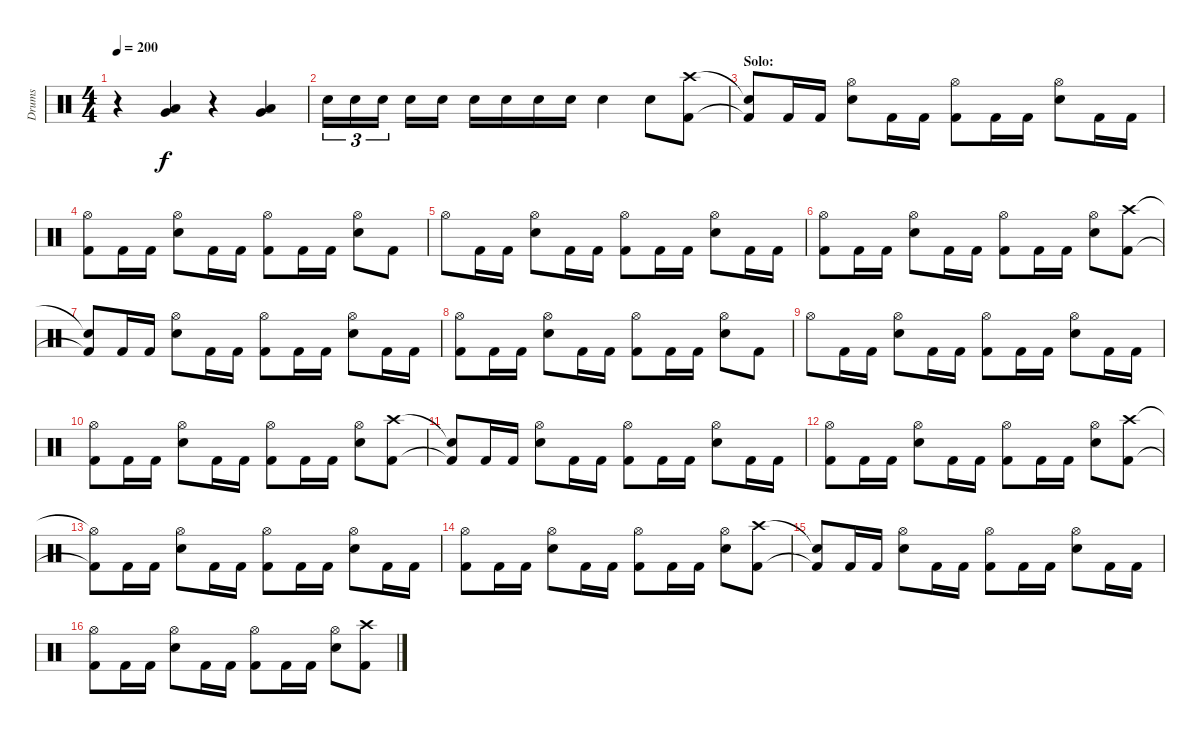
\track ("Drums" "Drums") {instrument percussion}
\staff {score}
\articulation defaults
\ts (4 4)
\tempo 200
\clef neutral
\ks c
r.4{dy f} ("Low Tom (hit)" "Very Low Tom (hit)").4 r.4 ("Low Tom (hit)" "Very Low Tom (hit)").4 |
"Electric Snare (hit)".16{tu (3 2)} "Electric Snare (hit)".16{tu (3 2)} "Electric Snare (hit)".16{tu (3 2)} "Electric Snare (hit)".16 "Electric Snare (hit)".16 "Electric Snare (hit)".16 "Electric Snare (hit)".16 "Electric Snare (hit)".16 "Electric Snare (hit)".16 "Electric Snare (hit)".4 "Electric Snare (hit)".8 ("Crash high (hit)" "Kick (hit) 2").8 |
\section ("" "Solo:")
("Snare (hit)"{t} "Kick (hit) 2"{t}).8 "Kick (hit) 2".16 "Kick (hit) 2".16 ("Hi-Hat (open)" "Electric Snare (hit)").8 "Kick (hit) 2".16 "Kick (hit) 2".16 ("Hi-Hat (open)" "Kick (hit) 2").8 "Kick (hit) 2".16 "Kick (hit) 2".16 ("Hi-Hat (open)" "Electric Snare (hit)").8 "Kick (hit) 2".16 "Kick (hit) 2".16 |
("Hi-Hat (open)" "Kick (hit) 2").8 "Kick (hit) 2".16 "Kick (hit) 2".16 ("Hi-Hat (open)" "Electric Snare (hit)").8 "Kick (hit) 2".16 "Kick (hit) 2".16 ("Hi-Hat (open)" "Kick (hit) 2").8 "Kick (hit) 2".16 "Kick (hit) 2".16 ("Hi-Hat (open)" "Electric Snare (hit)").8 "Kick (hit) 2".8 |
"Hi-Hat (open)".8 "Kick (hit) 2".16 "Kick (hit) 2".16 ("Hi-Hat (open)" "Electric Snare (hit)").8 "Kick (hit) 2".16 "Kick (hit) 2".16 ("Hi-Hat (open)" "Kick (hit) 2").8 "Kick (hit) 2".16 "Kick (hit) 2".16 ("Hi-Hat (open)" "Electric Snare (hit)").8 "Kick (hit) 2".16 "Kick (hit) 2".16 |
("Hi-Hat (open)" "Kick (hit) 2").8 "Kick (hit) 2".16 "Kick (hit) 2".16 ("Hi-Hat (open)" "Electric Snare (hit)").8 "Kick (hit) 2".16 "Kick (hit) 2".16 ("Hi-Hat (open)" "Kick (hit) 2").8 "Kick (hit) 2".16 "Kick (hit) 2".16 ("Hi-Hat (open)" "Electric Snare (hit)").8 ("Crash high (hit)" "Kick (hit) 2").8 |
("Snare (hit)"{t} "Kick (hit) 2"{t}).8 "Kick (hit) 2".16 "Kick (hit) 2".16 ("Hi-Hat (open)" "Electric Snare (hit)").8 "Kick (hit) 2".16 "Kick (hit) 2".16 ("Hi-Hat (open)" "Kick (hit) 2").8 "Kick (hit) 2".16 "Kick (hit) 2".16 ("Hi-Hat (open)" "Electric Snare (hit)").8 "Kick (hit) 2".16 "Kick (hit) 2".16 |
("Hi-Hat (open)" "Kick (hit) 2").8 "Kick (hit) 2".16 "Kick (hit) 2".16 ("Hi-Hat (open)" "Electric Snare (hit)").8 "Kick (hit) 2".16 "Kick (hit) 2".16 ("Hi-Hat (open)" "Kick (hit) 2").8 "Kick (hit) 2".16 "Kick (hit) 2".16 ("Hi-Hat (open)" "Electric Snare (hit)").8 "Kick (hit) 2".8 |
"Hi-Hat (open)".8 "Kick (hit) 2".16 "Kick (hit) 2".16 ("Hi-Hat (open)" "Electric Snare (hit)").8 "Kick (hit) 2".16 "Kick (hit) 2".16 ("Hi-Hat (open)" "Kick (hit) 2").8 "Kick (hit) 2".16 "Kick (hit) 2".16 ("Hi-Hat (open)" "Electric Snare (hit)").8 "Kick (hit) 2".16 "Kick (hit) 2".16 |
("Hi-Hat (open)" "Kick (hit) 2").8 "Kick (hit) 2".16 "Kick (hit) 2".16 ("Hi-Hat (open)" "Electric Snare (hit)").8 "Kick (hit) 2".16 "Kick (hit) 2".16 ("Hi-Hat (open)" "Kick (hit) 2").8 "Kick (hit) 2".16 "Kick (hit) 2".16 ("Hi-Hat (open)" "Electric Snare (hit)").8 ("Crash high (hit)" "Kick (hit) 2").8 |
("Snare (hit)"{t} "Kick (hit) 2"{t}).8 "Kick (hit) 2".16 "Kick (hit) 2".16 ("Hi-Hat (open)" "Electric Snare (hit)").8 "Kick (hit) 2".16 "Kick (hit) 2".16 ("Hi-Hat (open)" "Kick (hit) 2").8 "Kick (hit) 2".16 "Kick (hit) 2".16 ("Hi-Hat (open)" "Electric Snare (hit)").8 "Kick (hit) 2".16 "Kick (hit) 2".16 |
("Hi-Hat (open)" "Kick (hit) 2").8 "Kick (hit) 2".16 "Kick (hit) 2".16 ("Hi-Hat (open)" "Electric Snare (hit)").8 "Kick (hit) 2".16 "Kick (hit) 2".16 ("Hi-Hat (open)" "Kick (hit) 2").8 "Kick (hit) 2".16 "Kick (hit) 2".16 ("Hi-Hat (open)" "Electric Snare (hit)").8 ("Crash high (hit)" "Kick (hit) 2").8 |
("Hi-Hat (open)"{t} "Kick (hit) 2"{t}).8 "Kick (hit) 2".16 "Kick (hit) 2".16 ("Hi-Hat (open)" "Electric Snare (hit)").8 "Kick (hit) 2".16 "Kick (hit) 2".16 ("Hi-Hat (open)" "Kick (hit) 2").8 "Kick (hit) 2".16 "Kick (hit) 2".16 ("Hi-Hat (open)" "Electric Snare (hit)").8 "Kick (hit) 2".16 "Kick (hit) 2".16 |
("Hi-Hat (open)" "Kick (hit) 2").8 "Kick (hit) 2".16 "Kick (hit) 2".16 ("Hi-Hat (open)" "Electric Snare (hit)").8 "Kick (hit) 2".16 "Kick (hit) 2".16 ("Hi-Hat (open)" "Kick (hit) 2").8 "Kick (hit) 2".16 "Kick (hit) 2".16 ("Hi-Hat (open)" "Electric Snare (hit)").8 ("Crash high (hit)" "Kick (hit) 2").8 |
("Snare (hit)"{t} "Kick (hit) 2"{t}).8 "Kick (hit) 2".16 "Kick (hit) 2".16 ("Hi-Hat (open)" "Electric Snare (hit)").8 "Kick (hit) 2".16 "Kick (hit) 2".16 ("Hi-Hat (open)" "Kick (hit) 2").8 "Kick (hit) 2".16 "Kick (hit) 2".16 ("Hi-Hat (open)" "Electric Snare (hit)").8 "Kick (hit) 2".16 "Kick (hit) 2".16 |
("Hi-Hat (open)" "Kick (hit) 2").8 "Kick (hit) 2".16 "Kick (hit) 2".16 ("Hi-Hat (open)" "Electric Snare (hit)").8 "Kick (hit) 2".16 "Kick (hit) 2".16 ("Hi-Hat (open)" "Kick (hit) 2").8 "Kick (hit) 2".16 "Kick (hit) 2".16 ("Hi-Hat (open)" "Electric Snare (hit)").8 ("Crash high (hit)" "Kick (hit) 2").8
